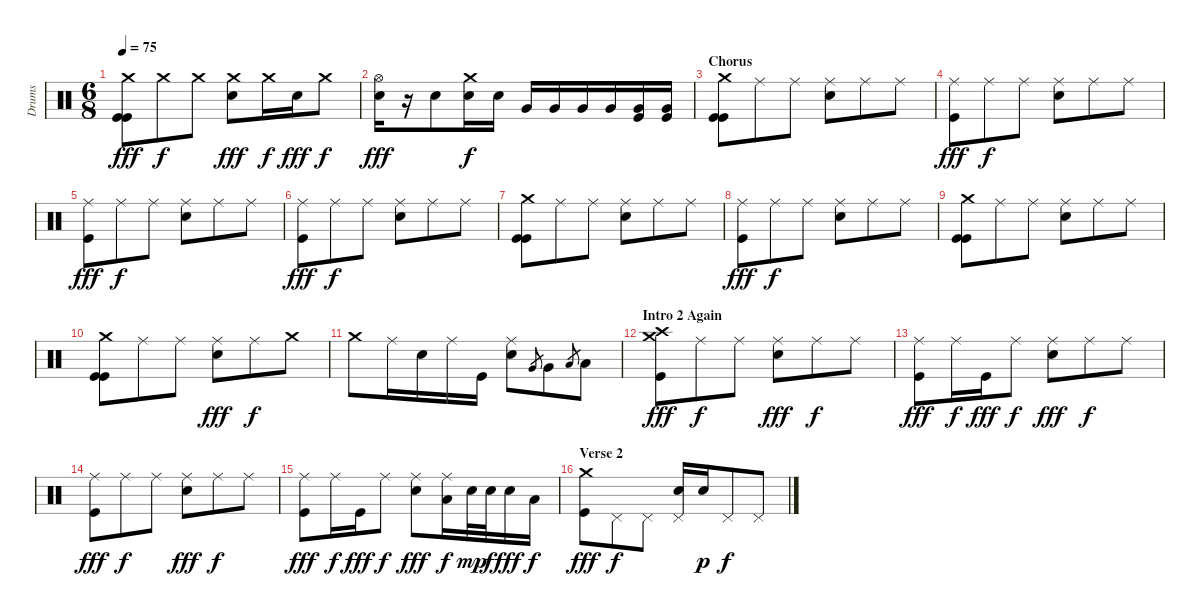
\track ("Drums" "Drums") {instrument percussion}
\staff {score}
\articulation defaults
\ts (6 8)
\tempo 75
\clef neutral
\ks c
("Crash medium (hit)" "Kick (hit)" "Kick (hit)").8{dy fff} "Crash medium (hit)".8{dy f} "Crash medium (hit)".8 ("Crash medium (hit)" "Snare (hit) 2").8{dy fff} "Crash medium (hit)".16{dy f} "Snare (hit) 2".16{dy fff} "Crash medium (hit)".8{dy f} |
("Hi-Hat (open)" "Snare (hit) 2").16{dy fff} r.16 "Snare (hit) 2".8 ("Crash medium (hit)" "Snare (hit) 2").16{dy f} "Snare (hit) 2".16 "Very Low Tom (hit)".16 "Very Low Tom (hit)".16 "Very Low Tom (hit)".16 "Very Low Tom (hit)".16 ("Very Low Tom (hit)" "Kick (hit)").16 ("Very Low Tom (hit)" "Kick (hit)").16 |
\section ("" "Chorus")
("Crash medium (hit)" "Kick (hit)" "Kick (hit)").8 "Ride (middle)".8 "Ride (middle)".8 ("Ride (middle)" "Snare (hit) 2").8 "Ride (middle)".8 "Ride (middle)".8 |
("Ride (middle)" "Kick (hit)").8{dy fff} "Ride (middle)".8{dy f} "Ride (middle)".8 ("Ride (middle)" "Snare (hit) 2").8 "Ride (middle)".8 "Ride (middle)".8 |
("Ride (middle)" "Kick (hit)").8{dy fff} "Ride (middle)".8{dy f} "Ride (middle)".8 ("Ride (middle)" "Snare (hit) 2").8 "Ride (middle)".8 "Ride (middle)".8 |
("Ride (middle)" "Kick (hit)").8{dy fff} "Ride (middle)".8{dy f} "Ride (middle)".8 ("Ride (middle)" "Snare (hit) 2").8 "Ride (middle)".8 "Ride (middle)".8 |
("Crash medium (hit)" "Kick (hit)" "Kick (hit)").8 "Ride (middle)".8 "Ride (middle)".8 ("Ride (middle)" "Snare (hit) 2").8 "Ride (middle)".8 "Ride (middle)".8 |
("Ride (middle)" "Kick (hit)").8{dy fff} "Ride (middle)".8{dy f} "Ride (middle)".8 ("Ride (middle)" "Snare (hit) 2").8 "Ride (middle)".8 "Ride (middle)".8 |
("Crash medium (hit)" "Kick (hit)" "Kick (hit)").8 "Ride (middle)".8 "Ride (middle)".8 ("Ride (middle)" "Snare (hit) 2").8 "Ride (middle)".8 "Ride (middle)".8 |
("Crash medium (hit)" "Kick (hit)" "Kick (hit)").8 "Ride (middle)".8 "Ride (middle)".8 ("Ride (middle)" "Snare (hit) 2").8{dy fff} "Ride (middle)".8{dy f} "Crash medium (hit)".8 |
"Crash medium (hit)".8 "Ride (middle)".16 "Snare (hit) 2".16 "Ride (middle)".16 "Kick (hit)".16 ("Ride (middle)" "Snare (hit) 2").8 "Very Low Tom (hit)".8{gr} "Very Low Tom (hit)".8 "Low Floor Tom (hit)".8{gr} "Low Floor Tom (hit)".8 |
\section ("" "Intro 2 Again")
("Crash medium (hit)" "Crash high (hit)" "Kick (hit)").8{dy fff} "Ride (middle)".8{dy f} "Ride (middle)".8 ("Ride (middle)" "Snare (hit) 2").8{dy fff} "Ride (middle)".8{dy f} "Ride (middle)".8 |
("Ride (middle)" "Kick (hit)").8{dy fff} "Ride (middle)".16{dy f} "Kick (hit)".16{dy fff} "Ride (middle)".8{dy f} ("Ride (middle)" "Snare (hit) 2").8{dy fff} "Ride (middle)".8{dy f} "Ride (middle)".8 |
("Ride (middle)" "Kick (hit)").8{dy fff} "Ride (middle)".8{dy f} "Ride (middle)".8 ("Ride (middle)" "Snare (hit) 2").8{dy fff} "Ride (middle)".8{dy f} "Ride (middle)".8 |
("Ride (middle)" "Kick (hit)").8{dy fff} "Ride (middle)".16{dy f} "Kick (hit)".16{dy fff} "Ride (middle)".8{dy f} ("Ride (middle)" "Snare (hit) 2").8{dy fff} ("Ride (middle)" "Low Tom (hit)").16{dy f} "Snare (hit) 2".32{dy mp} "Snare (hit) 2".32{dy f} "Snare (hit) 2".16{dy fff} "Low Tom (hit)".16{dy f} |
\section ("" "Verse 2")
("Crash medium (hit)" "Kick (hit)").8{dy fff} "Pedal Hi-Hat (hit)".8{dy f} "Pedal Hi-Hat (hit)".8 ("Pedal Hi-Hat (hit)" "Snare (hit) 2").16 "Snare (hit) 2".16{dy p} "Pedal Hi-Hat (hit)".8{dy f} "Pedal Hi-Hat (hit)".8
